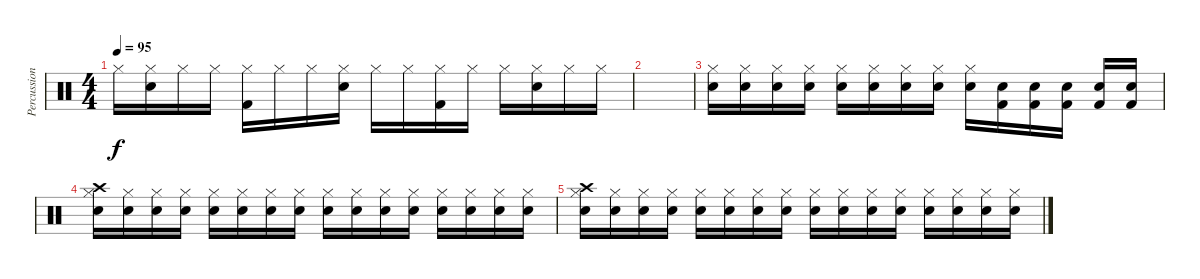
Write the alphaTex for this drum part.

\track ("Percussion" "Percussion") {instrument percussion}
\staff {score}
\articulation defaults
\ts (4 4)
\tempo 95
\clef neutral
\ks c "Hi-Hat (closed)".16{dy f}
("Hi-Hat (closed)" "Electric Snare (hit)").16 "Hi-Hat (closed)".16 "Hi-Hat (closed)".16 ("Hi-Hat (closed)" "Kick (hit) 2").16 "Hi-Hat (closed)".16 "Hi-Hat (closed)".16 ("Hi-Hat (closed)" "Electric Snare (hit)").16 "Hi-Hat (closed)".16 "Hi-Hat (closed)".16 ("Hi-Hat (closed)" "Kick (hit) 2").16 "Hi-Hat (closed)".16 "Hi-Hat (closed)".16 ("Hi-Hat (closed)" "Electric Snare (hit)").16 "Hi-Hat (closed)".16 "Hi-Hat (closed)".16 |
|
("Hi-Hat (closed)" "Electric Snare (hit)").16 ("Hi-Hat (closed)" "Electric Snare (hit)").16 ("Hi-Hat (closed)" "Electric Snare (hit)").16 ("Hi-Hat (closed)" "Electric Snare (hit)").16 ("Hi-Hat (closed)" "Electric Snare (hit)").16 ("Hi-Hat (closed)" "Electric Snare (hit)").16 ("Hi-Hat (closed)" "Electric Snare (hit)").16 ("Hi-Hat (closed)" "Electric Snare (hit)").16 ("Hi-Hat (closed)" "Electric Snare (hit)").16 ("Electric Snare (hit)" "Kick (hit) 2").16 ("Electric Snare (hit)" "Kick (hit) 2").16 ("Electric Snare (hit)" "Kick (hit) 2").16 ("Electric Snare (hit)" "Kick (hit) 2").16 ("Electric Snare (hit)" "Kick (hit) 2").16 |
("Crash high (hit)" "Hi-Hat (closed)" "Electric Snare (hit)").16 ("Hi-Hat (closed)" "Electric Snare (hit)").16 ("Hi-Hat (closed)" "Electric Snare (hit)").16 ("Hi-Hat (closed)" "Electric Snare (hit)").16 ("Hi-Hat (closed)" "Electric Snare (hit)").16 ("Hi-Hat (closed)" "Electric Snare (hit)").16 ("Hi-Hat (closed)" "Electric Snare (hit)").16 ("Hi-Hat (closed)" "Electric Snare (hit)").16 ("Hi-Hat (closed)" "Electric Snare (hit)").16 ("Hi-Hat (closed)" "Electric Snare (hit)").16 ("Hi-Hat (closed)" "Electric Snare (hit)").16 ("Hi-Hat (closed)" "Electric Snare (hit)").16 ("Hi-Hat (closed)" "Electric Snare (hit)").16 ("Hi-Hat (closed)" "Electric Snare (hit)").16 ("Hi-Hat (closed)" "Electric Snare (hit)").16 ("Hi-Hat (closed)" "Electric Snare (hit)").16 |
("Crash high (hit)" "Hi-Hat (closed)" "Electric Snare (hit)").16 ("Hi-Hat (closed)" "Electric Snare (hit)").16 ("Hi-Hat (closed)" "Electric Snare (hit)").16 ("Hi-Hat (closed)" "Electric Snare (hit)").16 ("Hi-Hat (closed)" "Electric Snare (hit)").16 ("Hi-Hat (closed)" "Electric Snare (hit)").16 ("Hi-Hat (closed)" "Electric Snare (hit)").16 ("Hi-Hat (closed)" "Electric Snare (hit)").16 ("Hi-Hat (closed)" "Electric Snare (hit)").16 ("Hi-Hat (closed)" "Electric Snare (hit)").16 ("Hi-Hat (closed)" "Electric Snare (hit)").16 ("Hi-Hat (closed)" "Electric Snare (hit)").16 ("Hi-Hat (closed)" "Electric Snare (hit)").16 ("Hi-Hat (closed)" "Electric Snare (hit)").16 ("Hi-Hat (closed)" "Electric Snare (hit)").16 ("Hi-Hat (closed)" "Electric Snare (hit)").16
